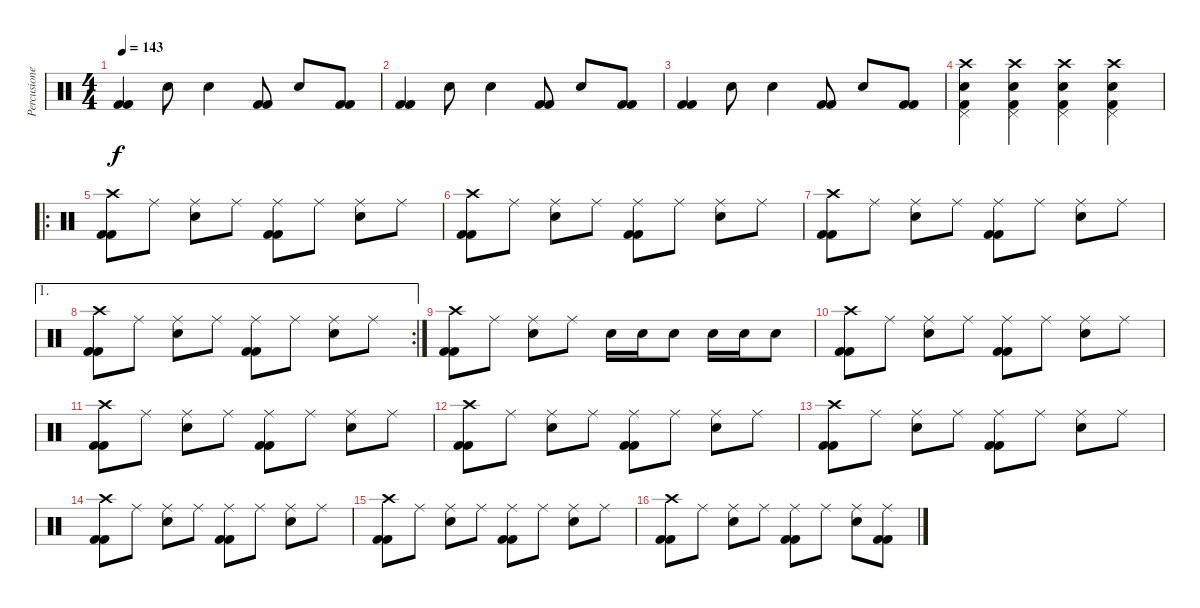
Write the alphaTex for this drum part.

\track ("Percusiones" "Percusione") {instrument percussion}
\staff {score}
\articulation defaults
\ts (4 4)
\tempo 143
\clef neutral
\ks c
("Kick (hit) 2" "Kick (hit) 2").4{dy f} "Snare (hit) 2".8 "Snare (hit) 2".4 ("Kick (hit) 2" "Kick (hit) 2").8 "Snare (hit) 2".8 ("Kick (hit) 2" "Kick (hit) 2").8 |
("Kick (hit) 2" "Kick (hit) 2").4 "Snare (hit) 2".8 "Snare (hit) 2".4 ("Kick (hit) 2" "Kick (hit) 2").8 "Snare (hit) 2".8 ("Kick (hit) 2" "Kick (hit) 2").8 |
("Kick (hit) 2" "Kick (hit) 2").4 "Snare (hit) 2".8 "Snare (hit) 2".4 ("Kick (hit) 2" "Kick (hit) 2").8 "Snare (hit) 2".8 ("Kick (hit) 2" "Kick (hit) 2").8 |
("Snare (hit) 2" "Kick (hit) 2" "Pedal Hi-Hat (hit)" "Crash high (hit)").4 ("Snare (hit) 2" "Kick (hit) 2" "Pedal Hi-Hat (hit)" "Crash high (hit)").4 ("Snare (hit) 2" "Kick (hit) 2" "Pedal Hi-Hat (hit)" "Crash high (hit)").4 ("Snare (hit) 2" "Kick (hit) 2" "Pedal Hi-Hat (hit)" "Crash high (hit)").4 |
\ro
("Crash high (hit)" "Kick (hit) 2" "Kick (hit) 2").8 "Ride (middle)".8 ("Ride (middle)" "Snare (hit) 2").8 "Ride (middle)".8 ("Ride (middle)" "Kick (hit) 2" "Kick (hit) 2").8 "Ride (middle)".8 ("Ride (middle)" "Snare (hit) 2").8 "Ride (middle)".8 |
("Crash high (hit)" "Kick (hit) 2" "Kick (hit) 2").8 "Ride (middle)".8 ("Ride (middle)" "Snare (hit) 2").8 "Ride (middle)".8 ("Ride (middle)" "Kick (hit) 2" "Kick (hit) 2").8 "Ride (middle)".8 ("Ride (middle)" "Snare (hit) 2").8 "Ride (middle)".8 |
("Crash high (hit)" "Kick (hit) 2" "Kick (hit) 2").8 "Ride (middle)".8 ("Ride (middle)" "Snare (hit) 2").8 "Ride (middle)".8 ("Ride (middle)" "Kick (hit) 2" "Kick (hit) 2").8 "Ride (middle)".8 ("Ride (middle)" "Snare (hit) 2").8 "Ride (middle)".8 |
\ae 1
\rc 2
("Crash high (hit)" "Kick (hit) 2" "Kick (hit) 2").8 "Ride (middle)".8 ("Ride (middle)" "Snare (hit) 2").8 "Ride (middle)".8 ("Ride (middle)" "Kick (hit) 2" "Kick (hit) 2").8 "Ride (middle)".8 ("Ride (middle)" "Snare (hit) 2").8 "Ride (middle)".8 |
("Crash high (hit)" "Kick (hit) 2" "Kick (hit) 2").8 "Ride (middle)".8 ("Ride (middle)" "Snare (hit) 2").8 "Ride (middle)".8 "Snare (hit) 2".16 "Snare (hit) 2".16 "Snare (hit) 2".8 "Snare (hit) 2".16 "Snare (hit) 2".16 "Snare (hit) 2".8 |
("Crash high (hit)" "Kick (hit) 2" "Kick (hit) 2").8 "Ride (middle)".8 ("Ride (middle)" "Snare (hit) 2").8 "Ride (middle)".8 ("Ride (middle)" "Kick (hit) 2" "Kick (hit) 2").8 "Ride (middle)".8 ("Ride (middle)" "Snare (hit) 2").8 "Ride (middle)".8 |
("Crash high (hit)" "Kick (hit) 2" "Kick (hit) 2").8 "Ride (middle)".8 ("Ride (middle)" "Snare (hit) 2").8 "Ride (middle)".8 ("Ride (middle)" "Kick (hit) 2" "Kick (hit) 2").8 "Ride (middle)".8 ("Ride (middle)" "Snare (hit) 2").8 "Ride (middle)".8 |
("Crash high (hit)" "Kick (hit) 2" "Kick (hit) 2").8 "Ride (middle)".8 ("Ride (middle)" "Snare (hit) 2").8 "Ride (middle)".8 ("Ride (middle)" "Kick (hit) 2" "Kick (hit) 2").8 "Ride (middle)".8 ("Ride (middle)" "Snare (hit) 2").8 "Ride (middle)".8 |
("Crash high (hit)" "Kick (hit) 2" "Kick (hit) 2").8 "Ride (middle)".8 ("Ride (middle)" "Snare (hit) 2").8 "Ride (middle)".8 ("Ride (middle)" "Kick (hit) 2" "Kick (hit) 2").8 "Ride (middle)".8 ("Ride (middle)" "Snare (hit) 2").8 "Ride (middle)".8 |
("Crash high (hit)" "Kick (hit) 2" "Kick (hit) 2").8 "Ride (middle)".8 ("Ride (middle)" "Snare (hit) 2").8 "Ride (middle)".8 ("Ride (middle)" "Kick (hit) 2" "Kick (hit) 2").8 "Ride (middle)".8 ("Ride (middle)" "Snare (hit) 2").8 "Ride (middle)".8 |
("Crash high (hit)" "Kick (hit) 2" "Kick (hit) 2").8 "Ride (middle)".8 ("Ride (middle)" "Snare (hit) 2").8 "Ride (middle)".8 ("Ride (middle)" "Kick (hit) 2" "Kick (hit) 2").8 "Ride (middle)".8 ("Ride (middle)" "Snare (hit) 2").8 "Ride (middle)".8 |
("Crash high (hit)" "Kick (hit) 2" "Kick (hit) 2").8 "Ride (middle)".8 ("Ride (middle)" "Snare (hit) 2").8 "Ride (middle)".8 ("Ride (middle)" "Kick (hit) 2" "Kick (hit) 2").8 "Ride (middle)".8 ("Ride (middle)" "Snare (hit) 2").8 ("Ride (middle)" "Kick (hit) 2" "Kick (hit) 2").8
